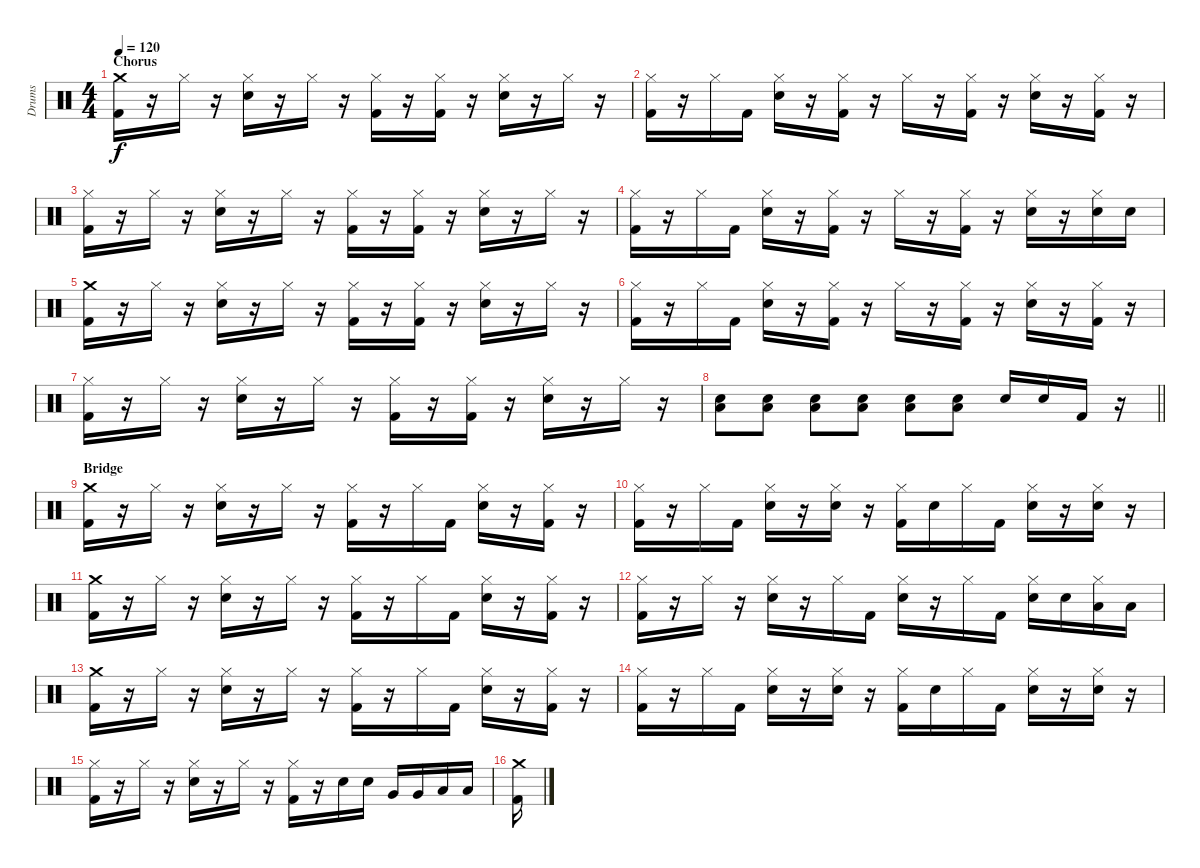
\track ("Drums" "Drums") {instrument percussion}
\staff {score}
\articulation defaults
\ts (4 4)
\section ("" "Chorus")
\tempo 120
\clef neutral
\ks c
("Crash medium (hit)" "Kick (hit) 2").16{dy f} r.16 "Hi-Hat (closed)".16 r.16 ("Hi-Hat (closed)" "Snare (hit) 2").16 r.16 "Hi-Hat (closed)".16 r.16 ("Hi-Hat (closed)" "Kick (hit) 2").16 r.16 ("Hi-Hat (closed)" "Kick (hit) 2").16 r.16 ("Hi-Hat (closed)" "Snare (hit) 2").16 r.16 "Hi-Hat (closed)".16 r.16 |
("Hi-Hat (closed)" "Kick (hit) 2").16 r.16 "Hi-Hat (closed)".16 "Kick (hit) 2".16 ("Hi-Hat (closed)" "Snare (hit) 2").16 r.16 ("Hi-Hat (closed)" "Kick (hit) 2").16 r.16 "Hi-Hat (closed)".16 r.16 ("Hi-Hat (closed)" "Kick (hit) 2").16 r.16 ("Hi-Hat (closed)" "Snare (hit) 2").16 r.16 ("Hi-Hat (closed)" "Kick (hit) 2").16 r.16 |
("Hi-Hat (closed)" "Kick (hit) 2").16 r.16 "Hi-Hat (closed)".16 r.16 ("Hi-Hat (closed)" "Snare (hit) 2").16 r.16 "Hi-Hat (closed)".16 r.16 ("Hi-Hat (closed)" "Kick (hit) 2").16 r.16 ("Hi-Hat (closed)" "Kick (hit) 2").16 r.16 ("Hi-Hat (closed)" "Snare (hit) 2").16 r.16 "Hi-Hat (closed)".16 r.16 |
("Hi-Hat (closed)" "Kick (hit) 2").16 r.16 "Hi-Hat (closed)".16 "Kick (hit) 2".16 ("Hi-Hat (closed)" "Snare (hit) 2").16 r.16 ("Hi-Hat (closed)" "Kick (hit) 2").16 r.16 "Hi-Hat (closed)".16 r.16 ("Hi-Hat (closed)" "Kick (hit) 2").16 r.16 ("Hi-Hat (closed)" "Snare (hit) 2").16 r.16 ("Hi-Hat (closed)" "Snare (hit) 2").16 "Snare (hit) 2".16 |
("Crash medium (hit)" "Kick (hit) 2").16 r.16 "Hi-Hat (closed)".16 r.16 ("Hi-Hat (closed)" "Snare (hit) 2").16 r.16 "Hi-Hat (closed)".16 r.16 ("Hi-Hat (closed)" "Kick (hit) 2").16 r.16 ("Hi-Hat (closed)" "Kick (hit) 2").16 r.16 ("Hi-Hat (closed)" "Snare (hit) 2").16 r.16 "Hi-Hat (closed)".16 r.16 |
("Hi-Hat (closed)" "Kick (hit) 2").16 r.16 "Hi-Hat (closed)".16 "Kick (hit) 2".16 ("Hi-Hat (closed)" "Snare (hit) 2").16 r.16 ("Hi-Hat (closed)" "Kick (hit) 2").16 r.16 "Hi-Hat (closed)".16 r.16 ("Hi-Hat (closed)" "Kick (hit) 2").16 r.16 ("Hi-Hat (closed)" "Snare (hit) 2").16 r.16 ("Hi-Hat (closed)" "Kick (hit) 2").16 r.16 |
("Hi-Hat (closed)" "Kick (hit) 2").16 r.16 "Hi-Hat (closed)".16 r.16 ("Hi-Hat (closed)" "Snare (hit) 2").16 r.16 "Hi-Hat (closed)".16 r.16 ("Hi-Hat (closed)" "Kick (hit) 2").16 r.16 ("Hi-Hat (closed)" "Kick (hit) 2").16 r.16 ("Hi-Hat (closed)" "Snare (hit) 2").16 r.16 "Hi-Hat (closed)".16 r.16 |
\barLineRight lightlight
("Electric Snare (hit)" "Low Floor Tom (hit)").8 ("Electric Snare (hit)" "Low Floor Tom (hit)").8 ("Electric Snare (hit)" "Low Floor Tom (hit)").8 ("Electric Snare (hit)" "Low Floor Tom (hit)").8 ("Electric Snare (hit)" "Low Floor Tom (hit)").8 ("Electric Snare (hit)" "Low Floor Tom (hit)").8 "Electric Snare (hit)".16 "Electric Snare (hit)".16 "Kick (hit) 2".16 r.16 |
\section ("" "Bridge")
("Crash medium (hit)" "Kick (hit) 2").16 r.16 "Hi-Hat (closed)".16 r.16 ("Hi-Hat (closed)" "Snare (hit) 2").16 r.16 "Hi-Hat (closed)".16 r.16 ("Hi-Hat (closed)" "Kick (hit) 2").16 r.16 "Hi-Hat (closed)".16 "Kick (hit) 2".16 ("Hi-Hat (closed)" "Snare (hit) 2").16 r.16 ("Hi-Hat (closed)" "Kick (hit) 2").16 r.16 |
("Hi-Hat (closed)" "Kick (hit) 2").16 r.16 "Hi-Hat (closed)".16 "Kick (hit) 2".16 ("Hi-Hat (closed)" "Snare (hit) 2").16 r.16 ("Hi-Hat (closed)" "Snare (hit) 2").16 r.16 ("Hi-Hat (closed)" "Kick (hit) 2").16 "Snare (hit) 2".16 "Hi-Hat (closed)".16 "Kick (hit) 2".16 ("Hi-Hat (closed)" "Snare (hit) 2").16 r.16 ("Hi-Hat (closed)" "Snare (hit) 2").16 r.16 |
("Crash medium (hit)" "Kick (hit) 2").16 r.16 "Hi-Hat (closed)".16 r.16 ("Hi-Hat (closed)" "Snare (hit) 2").16 r.16 "Hi-Hat (closed)".16 r.16 ("Hi-Hat (closed)" "Kick (hit) 2").16 r.16 "Hi-Hat (closed)".16 "Kick (hit) 2".16 ("Hi-Hat (closed)" "Snare (hit) 2").16 r.16 ("Hi-Hat (closed)" "Kick (hit) 2").16 r.16 |
("Hi-Hat (closed)" "Kick (hit) 2").16 r.16 "Hi-Hat (closed)".16 r.16 ("Hi-Hat (closed)" "Snare (hit) 2").16 r.16 "Hi-Hat (closed)".16 "Kick (hit) 2".16 ("Hi-Hat (closed)" "Snare (hit) 2").16 r.16 "Hi-Hat (closed)".16 "Kick (hit) 2".16 ("Hi-Hat (closed)" "Snare (hit) 2").16 "Snare (hit) 2".16 ("Hi-Hat (closed)" "Low Floor Tom (hit)").16 "Low Floor Tom (hit)".16 |
("Crash medium (hit)" "Kick (hit) 2").16 r.16 "Hi-Hat (closed)".16 r.16 ("Hi-Hat (closed)" "Snare (hit) 2").16 r.16 "Hi-Hat (closed)".16 r.16 ("Hi-Hat (closed)" "Kick (hit) 2").16 r.16 "Hi-Hat (closed)".16 "Kick (hit) 2".16 ("Hi-Hat (closed)" "Snare (hit) 2").16 r.16 ("Hi-Hat (closed)" "Kick (hit) 2").16 r.16 |
("Hi-Hat (closed)" "Kick (hit) 2").16 r.16 "Hi-Hat (closed)".16 "Kick (hit) 2".16 ("Hi-Hat (closed)" "Snare (hit) 2").16 r.16 ("Hi-Hat (closed)" "Snare (hit) 2").16 r.16 ("Hi-Hat (closed)" "Kick (hit) 2").16 "Snare (hit) 2".16 "Hi-Hat (closed)".16 "Kick (hit) 2".16 ("Hi-Hat (closed)" "Snare (hit) 2").16 r.16 ("Hi-Hat (closed)" "Snare (hit) 2").16 r.16 |
("Hi-Hat (closed)" "Kick (hit) 2").16 r.16 "Hi-Hat (closed)".16 r.16 ("Hi-Hat (closed)" "Snare (hit) 2").16 r.16 "Hi-Hat (closed)".16 r.16 ("Hi-Hat (closed)" "Kick (hit) 2").16 r.16 "Snare (hit) 2".16 "Snare (hit) 2".16 "Very Low Tom (hit)".16 "Very Low Tom (hit)".16 "Low Tom (hit)".16 "Low Floor Tom (hit)".16 |
("Crash medium (hit)" "Kick (hit) 2").16
